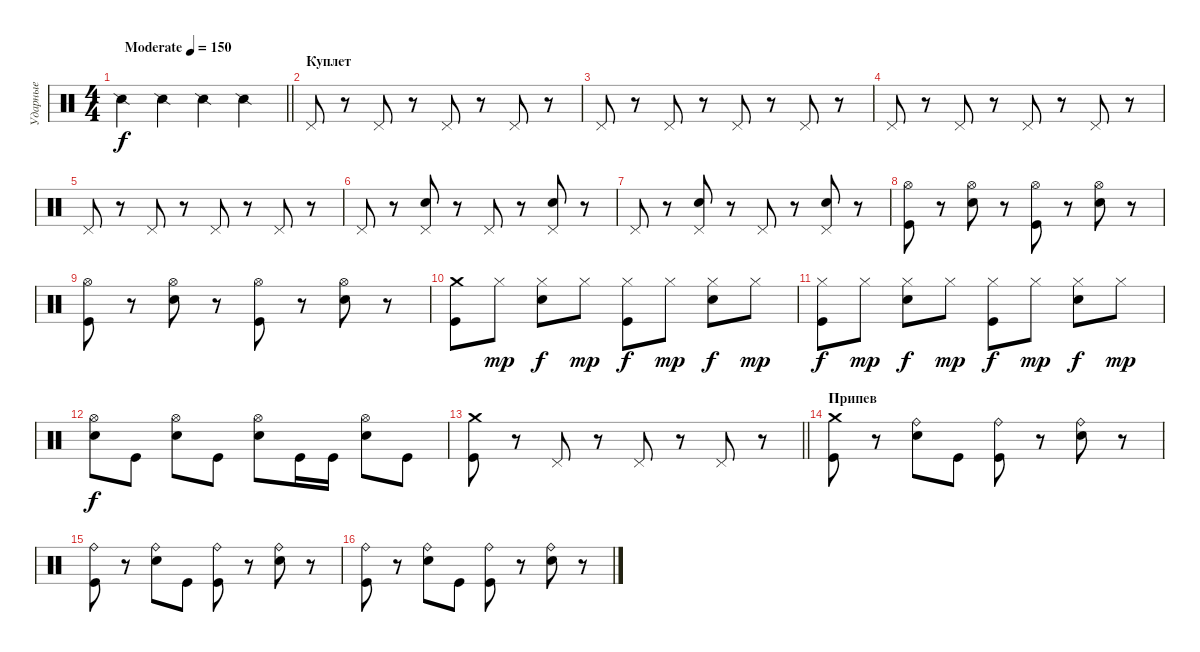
\track ("Ударные" "Ударные") {instrument percussion}
\staff {score}
\articulation defaults
\ts (4 4)
\tempo (150 "Moderate")
\clef neutral
\barLineRight lightlight
\ks c "Snare (side stick) 2".4{dy f} "Snare (side stick) 2".4 "Snare (side stick) 2".4 "Snare (side stick) 2".4
|
\section ("" "Куплет")
"Pedal Hi-Hat (hit)".8 r.8 "Pedal Hi-Hat (hit)".8 r.8 "Pedal Hi-Hat (hit)".8 r.8 "Pedal Hi-Hat (hit)".8 r.8 |
"Pedal Hi-Hat (hit)".8 r.8 "Pedal Hi-Hat (hit)".8 r.8 "Pedal Hi-Hat (hit)".8 r.8 "Pedal Hi-Hat (hit)".8 r.8 |
"Pedal Hi-Hat (hit)".8 r.8 "Pedal Hi-Hat (hit)".8 r.8 "Pedal Hi-Hat (hit)".8 r.8 "Pedal Hi-Hat (hit)".8 r.8 |
"Pedal Hi-Hat (hit)".8 r.8 "Pedal Hi-Hat (hit)".8 r.8 "Pedal Hi-Hat (hit)".8 r.8 "Pedal Hi-Hat (hit)".8 r.8 |
"Pedal Hi-Hat (hit)".8 r.8 ("Pedal Hi-Hat (hit)" "Electric Snare (hit)").8 r.8 "Pedal Hi-Hat (hit)".8 r.8 ("Pedal Hi-Hat (hit)" "Electric Snare (hit)").8 r.8 |
"Pedal Hi-Hat (hit)".8 r.8 ("Pedal Hi-Hat (hit)" "Electric Snare (hit)").8 r.8 "Pedal Hi-Hat (hit)".8 r.8 ("Pedal Hi-Hat (hit)" "Electric Snare (hit)").8 r.8 |
("Hi-Hat (open)" "Kick (hit)").8 r.8 ("Hi-Hat (open)" "Electric Snare (hit)").8 r.8 ("Hi-Hat (open)" "Kick (hit)").8 r.8 ("Hi-Hat (open)" "Electric Snare (hit)").8 r.8 |
("Hi-Hat (open)" "Kick (hit)").8 r.8 ("Hi-Hat (open)" "Electric Snare (hit)").8 r.8 ("Hi-Hat (open)" "Kick (hit)").8 r.8 ("Hi-Hat (open)" "Electric Snare (hit)").8 r.8 |
("Crash medium (hit)" "Kick (hit)").8 "Hi-Hat (closed)".8{dy mp} ("Hi-Hat (closed)" "Electric Snare (hit)").8{dy f} "Hi-Hat (closed)".8{dy mp} ("Hi-Hat (closed)" "Kick (hit)").8{dy f} "Hi-Hat (closed)".8{dy mp} ("Hi-Hat (closed)" "Electric Snare (hit)").8{dy f} "Hi-Hat (closed)".8{dy mp} |
("Hi-Hat (closed)" "Kick (hit)").8{dy f} "Hi-Hat (closed)".8{dy mp} ("Hi-Hat (closed)" "Electric Snare (hit)").8{dy f} "Hi-Hat (closed)".8{dy mp} ("Hi-Hat (closed)" "Kick (hit)").8{dy f} "Hi-Hat (closed)".8{dy mp} ("Hi-Hat (closed)" "Electric Snare (hit)").8{dy f} "Hi-Hat (closed)".8{dy mp} |
("Hi-Hat (open)" "Electric Snare (hit)").8{dy f} "Kick (hit)".8 ("Hi-Hat (open)" "Electric Snare (hit)").8 "Kick (hit)".8 ("Hi-Hat (open)" "Electric Snare (hit)").8 "Kick (hit)".16 "Kick (hit)".16 ("Hi-Hat (open)" "Electric Snare (hit)").8 "Kick (hit)".8 |
\barLineRight lightlight
("Crash medium (hit)" "Kick (hit)").8 r.8 "Pedal Hi-Hat (hit)".8 r.8 "Pedal Hi-Hat (hit)".8 r.8 "Pedal Hi-Hat (hit)".8 r.8 |
\section ("" "Припев")
("Crash medium (hit)" "Kick (hit)").8 r.8 ("Ride (bell)" "Electric Snare (hit)").8 "Kick (hit)".8 ("Ride (bell)" "Kick (hit)").8 r.8 ("Ride (bell)" "Electric Snare (hit)").8 r.8 |
("Ride (bell)" "Kick (hit)").8 r.8 ("Ride (bell)" "Electric Snare (hit)").8 "Kick (hit)".8 ("Ride (bell)" "Kick (hit)").8 r.8 ("Ride (bell)" "Electric Snare (hit)").8 r.8 |
("Ride (bell)" "Kick (hit)").8 r.8 ("Ride (bell)" "Electric Snare (hit)").8 "Kick (hit)".8 ("Ride (bell)" "Kick (hit)").8 r.8 ("Ride (bell)" "Electric Snare (hit)").8 r.8
